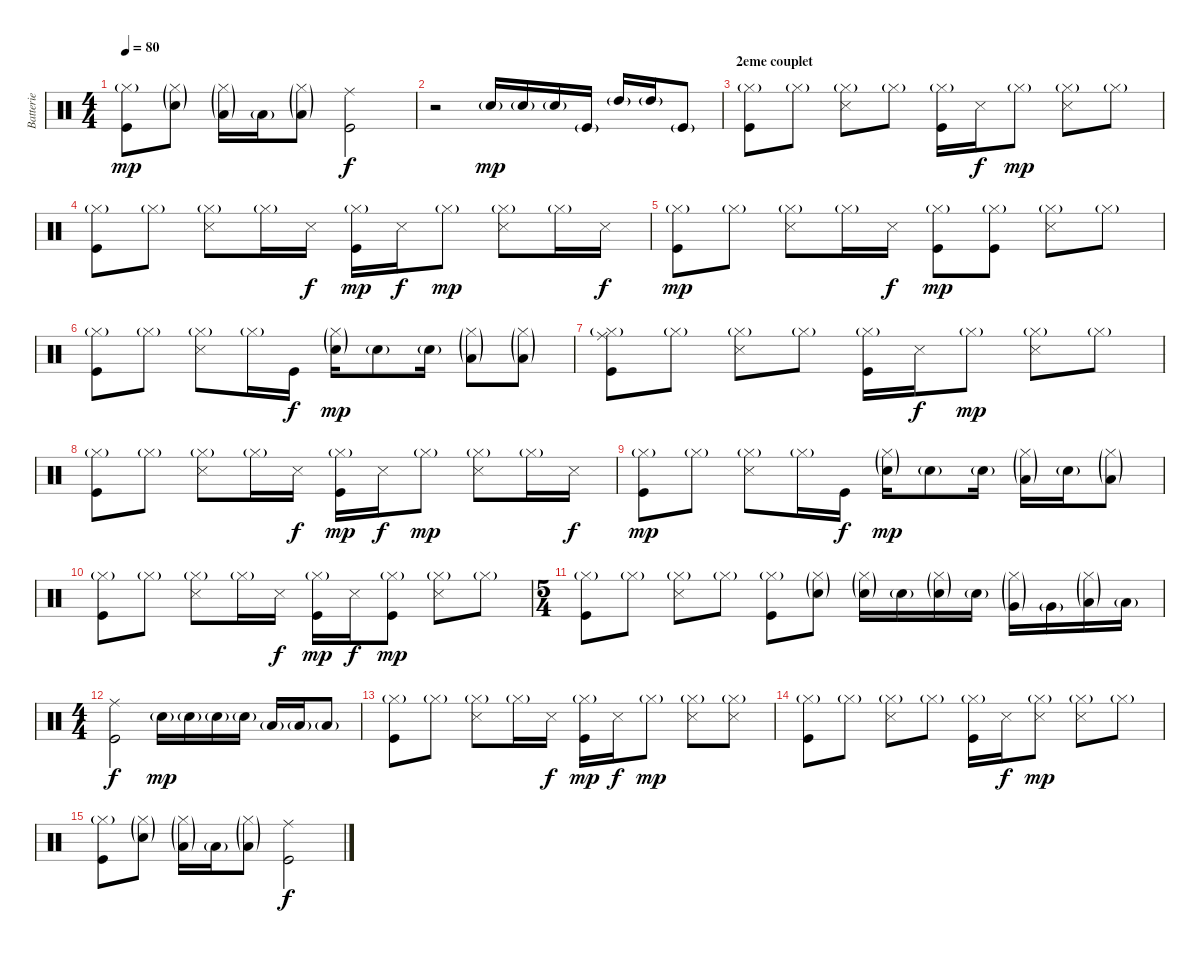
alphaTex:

\track ("Batterie" "Batterie") {instrument percussion}
\staff {score}
\articulation defaults
\ts (4 4)
\tempo 80
\clef neutral
\ks c
("Hi-Hat (closed)"{g} "Kick (hit)").8{dy mp} ("Hi-Hat (closed)"{g} "Snare (hit) 2"{g}).8 ("Hi-Hat (closed)"{g} "Low Tom (hit)"{g}).16 "Low Tom (hit)"{g}.16 ("Hi-Hat (closed)"{g} "Low Tom (hit)"{g}).8 ("Ride (middle)" "Kick (hit)").2{dy f} |
r.2 "Snare (hit) 2"{g}.16{dy mp} "Snare (hit) 2"{g}.16 "Snare (hit) 2"{g}.16 "Kick (hit)"{g}.16 "High Tom (hit)"{g}.16 "High Tom (hit)"{g}.16 "Kick (hit)"{g}.8 |
\section ("" "2eme couplet")
("Hi-Hat (closed)"{g} "Kick (hit)").8 "Hi-Hat (closed)"{g}.8 ("Hi-Hat (closed)"{g} "Snare (side stick) 3").8 "Hi-Hat (closed)"{g}.8 ("Hi-Hat (closed)"{g} "Kick (hit)").16 "Snare (side stick) 3".16{dy f} "Hi-Hat (closed)"{g}.8{dy mp} ("Hi-Hat (closed)"{g} "Snare (side stick) 3").8 "Hi-Hat (closed)"{g}.8 |
("Hi-Hat (closed)"{g} "Kick (hit)").8 "Hi-Hat (closed)"{g}.8 ("Hi-Hat (closed)"{g} "Snare (side stick) 3").8 "Hi-Hat (closed)"{g}.16 "Snare (side stick) 3".16{dy f} ("Hi-Hat (closed)"{g} "Kick (hit)").16{dy mp} "Snare (side stick) 3".16{dy f} "Hi-Hat (closed)"{g}.8{dy mp} ("Hi-Hat (closed)"{g} "Snare (side stick) 3").8 "Hi-Hat (closed)"{g}.16 "Snare (side stick) 3".16{dy f} |
("Hi-Hat (closed)"{g} "Kick (hit)").8{dy mp} "Hi-Hat (closed)"{g}.8 ("Hi-Hat (closed)"{g} "Snare (side stick) 3").8 "Hi-Hat (closed)"{g}.16 "Snare (side stick) 3".16{dy f} ("Hi-Hat (closed)"{g} "Kick (hit)").8{dy mp} ("Hi-Hat (closed)"{g} "Kick (hit)").8 ("Hi-Hat (closed)"{g} "Snare (side stick) 3").8 "Hi-Hat (closed)"{g}.8 |
("Hi-Hat (closed)"{g} "Kick (hit)").8 "Hi-Hat (closed)"{g}.8 ("Hi-Hat (closed)"{g} "Snare (side stick) 3").8 "Hi-Hat (closed)"{g}.16 "Kick (hit)".16{dy f} ("Hi-Hat (closed)"{g} "Snare (hit) 2"{g}).16{dy mp} "Snare (hit) 2"{g}.8 "Snare (hit) 2"{g}.16 ("Hi-Hat (closed)"{g} "Low Floor Tom (hit)"{g}).8 ("Hi-Hat (closed)"{g} "Low Floor Tom (hit)"{g}).8 |
\section ("" "")
("Hi-Hat (closed)"{g} "Ride (middle)" "Kick (hit)").8 "Hi-Hat (closed)"{g}.8 ("Hi-Hat (closed)"{g} "Snare (side stick) 3").8 "Hi-Hat (closed)"{g}.8 ("Hi-Hat (closed)"{g} "Kick (hit)").16 "Snare (side stick) 3".16{dy f} "Hi-Hat (closed)"{g}.8{dy mp} ("Hi-Hat (closed)"{g} "Snare (side stick) 3").8 "Hi-Hat (closed)"{g}.8 |
("Hi-Hat (closed)"{g} "Kick (hit)").8 "Hi-Hat (closed)"{g}.8 ("Hi-Hat (closed)"{g} "Snare (side stick) 3").8 "Hi-Hat (closed)"{g}.16 "Snare (side stick) 3".16{dy f} ("Hi-Hat (closed)"{g} "Kick (hit)").16{dy mp} "Snare (side stick) 3".16{dy f} "Hi-Hat (closed)"{g}.8{dy mp} ("Hi-Hat (closed)"{g} "Snare (side stick) 3").8 "Hi-Hat (closed)"{g}.16 "Snare (side stick) 3".16{dy f} |
("Hi-Hat (closed)"{g} "Kick (hit)").8{dy mp} "Hi-Hat (closed)"{g}.8 ("Hi-Hat (closed)"{g} "Snare (side stick) 3").8 "Hi-Hat (closed)"{g}.16 "Kick (hit)".16{dy f} ("Hi-Hat (closed)"{g} "Snare (hit) 2"{g}).16{dy mp} "Snare (hit) 2"{g}.8 "Snare (hit) 2"{g}.16 ("Hi-Hat (closed)"{g} "Low Tom (hit)"{g}).16 "Snare (hit) 2"{g}.16 ("Hi-Hat (closed)"{g} "Low Tom (hit)"{g}).8 |
\section ("" "")
("Hi-Hat (closed)"{g} "Kick (hit)").8 "Hi-Hat (closed)"{g}.8 ("Hi-Hat (closed)"{g} "Snare (side stick) 3").8 "Hi-Hat (closed)"{g}.16 "Snare (side stick) 3".16{dy f} ("Hi-Hat (closed)"{g} "Kick (hit)").16{dy mp} "Snare (side stick) 3".16{dy f} ("Hi-Hat (closed)"{g} "Kick (hit)").8{dy mp} ("Hi-Hat (closed)"{g} "Snare (side stick) 3").8 "Hi-Hat (closed)"{g}.8 |
\ts (5 4)
("Hi-Hat (closed)"{g} "Kick (hit)").8 "Hi-Hat (closed)"{g}.8 ("Hi-Hat (closed)"{g} "Snare (side stick) 3").8 "Hi-Hat (closed)"{g}.8 ("Hi-Hat (closed)"{g} "Kick (hit)").8 ("Hi-Hat (closed)"{g} "Snare (hit) 2"{g}).8 ("Hi-Hat (closed)"{g} "Snare (hit) 2"{g}).16 "Snare (hit) 2"{g}.16 ("Hi-Hat (closed)"{g} "Snare (hit) 2"{g}).16 "Snare (hit) 2"{g}.16 ("Hi-Hat (closed)"{g} "Very Low Tom (hit)"{g}).16 "Very Low Tom (hit)"{g}.16 ("Hi-Hat (closed)"{g} "Low Tom (hit)"{g}).16 "Low Tom (hit)"{g}.16 |
\ts (4 4)
("Ride (middle)" "Kick (hit)").2{dy f} "Snare (hit) 2"{g}.16{dy mp} "Snare (hit) 2"{g}.16 "Snare (hit) 2"{g}.16 "Snare (hit) 2"{g}.16 "Low Tom (hit)"{g}.16 "Low Floor Tom (hit)"{g}.16 "Low Tom (hit)"{g}.8 |
\section ("" "")
("Hi-Hat (closed)"{g} "Kick (hit)").8 "Hi-Hat (closed)"{g}.8 ("Hi-Hat (closed)"{g} "Snare (side stick) 3").8 "Hi-Hat (closed)"{g}.16 "Snare (side stick) 3".16{dy f} ("Hi-Hat (closed)"{g} "Kick (hit)").16{dy mp} "Snare (side stick) 3".16{dy f} "Hi-Hat (closed)"{g}.8{dy mp} ("Hi-Hat (closed)"{g} "Snare (side stick) 3").8 ("Hi-Hat (closed)"{g} "Snare (side stick) 3").8 |
("Hi-Hat (closed)"{g} "Kick (hit)").8 "Hi-Hat (closed)"{g}.8 ("Hi-Hat (closed)"{g} "Snare (side stick) 3").8 "Hi-Hat (closed)"{g}.8 ("Hi-Hat (closed)"{g} "Kick (hit)").16 "Snare (side stick) 3".16{dy f} ("Hi-Hat (closed)"{g} "Snare (side stick) 3").8{dy mp} ("Hi-Hat (closed)"{g} "Snare (side stick) 3").8 "Hi-Hat (closed)"{g}.8 |
("Hi-Hat (closed)"{g} "Kick (hit)").8 ("Hi-Hat (closed)"{g} "Snare (hit) 2"{g}).8 ("Hi-Hat (closed)"{g} "Low Tom (hit)"{g}).16 "Low Tom (hit)"{g}.16 ("Hi-Hat (closed)"{g} "Low Tom (hit)"{g}).8 ("Ride (middle)" "Kick (hit)").2{dy f}
